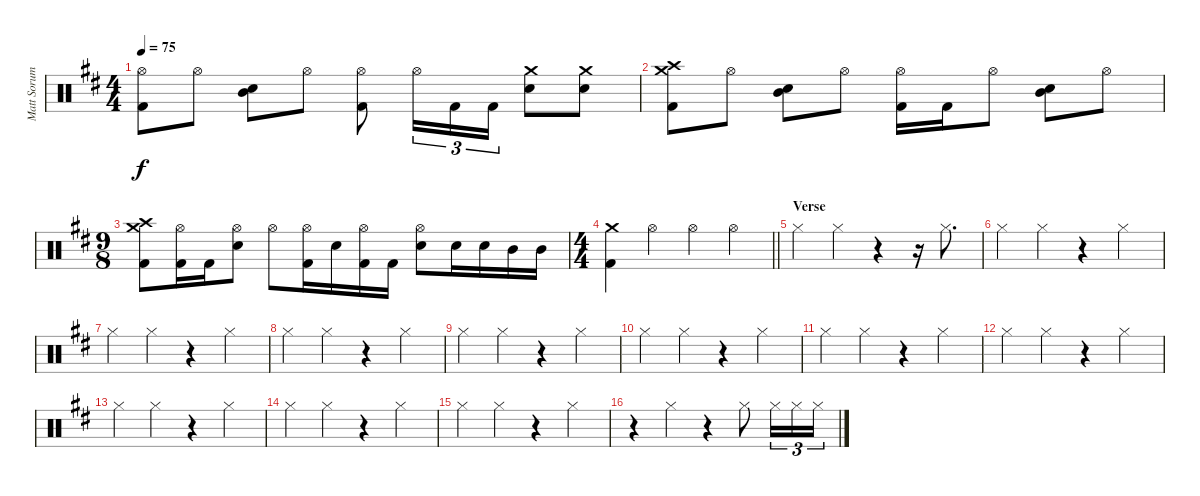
\track ("Matt Sorum- Drums" "Matt Sorum") {instrument percussion}
\staff {score}
\articulation defaults
\ts (4 4)
\tempo 75
\clef neutral
\ks d
("Hi-Hat (open)" "Kick (hit) 2").8{dy f} "Hi-Hat (open)".8 ("Mid Tom (hit)" "Snare (hit) 2").8 "Hi-Hat (open)".8 ("Hi-Hat (open)" "Kick (hit) 2").8 "Hi-Hat (open)".16{tu (3 2)} "Kick (hit) 2".16{tu (3 2)} "Kick (hit) 2".16{tu (3 2)} ("Crash medium (hit)" "Snare (hit) 2").8 ("Crash medium (hit)" "Snare (hit) 2").8 |
("Crash medium (hit)" "Crash high (hit)" "Kick (hit) 2").8 "Hi-Hat (open)".8 ("Mid Tom (hit)" "Snare (hit) 2").8 "Hi-Hat (open)".8 ("Hi-Hat (open)" "Kick (hit) 2").16 "Kick (hit) 2".16 "Hi-Hat (open)".8 ("Mid Tom (hit)" "Snare (hit) 2").8 "Hi-Hat (open)".8 |
\ts (9 8)
("Crash medium (hit)" "Crash high (hit)" "Kick (hit) 2").8 ("Hi-Hat (open)" "Kick (hit) 2").16 "Kick (hit) 2".16 ("Hi-Hat (open)" "Snare (hit) 2").8 "Hi-Hat (open)".8 ("Hi-Hat (open)" "Kick (hit) 2").16 "Snare (hit) 2".16 ("Hi-Hat (open)" "Kick (hit) 2").16 "Kick (hit) 2".16 ("Hi-Hat (open)" "Snare (hit) 2").8 "Snare (hit) 2".16 "Snare (hit) 2".16 "Mid Tom (hit)".16 "Mid Tom (hit)".16 |
\ts (4 4)
\barLineRight lightlight
("Crash medium (hit)" "Kick (hit) 2").4 "Hi-Hat (open)".4 "Hi-Hat (open)".4 "Hi-Hat (open)".4 |
\section ("" "Verse")
"Hi-Hat (closed)".4 "Hi-Hat (closed)".4 r.4 r.16 "Hi-Hat (closed)".8{d} |
"Hi-Hat (closed)".4 "Hi-Hat (closed)".4 r.4 "Hi-Hat (closed)".4 |
"Hi-Hat (closed)".4 "Hi-Hat (closed)".4 r.4 "Hi-Hat (closed)".4 |
"Hi-Hat (closed)".4 "Hi-Hat (closed)".4 r.4 "Hi-Hat (closed)".4 |
"Hi-Hat (closed)".4 "Hi-Hat (closed)".4 r.4 "Hi-Hat (closed)".4 |
"Hi-Hat (closed)".4 "Hi-Hat (closed)".4 r.4 "Hi-Hat (closed)".4 |
"Hi-Hat (closed)".4 "Hi-Hat (closed)".4 r.4 "Hi-Hat (closed)".4 |
"Hi-Hat (closed)".4 "Hi-Hat (closed)".4 r.4 "Hi-Hat (closed)".4 |
"Hi-Hat (closed)".4 "Hi-Hat (closed)".4 r.4 "Hi-Hat (closed)".4 |
"Hi-Hat (closed)".4 "Hi-Hat (closed)".4 r.4 "Hi-Hat (closed)".4 |
"Hi-Hat (closed)".4 "Hi-Hat (closed)".4 r.4 "Hi-Hat (closed)".4 |
r.4 "Hi-Hat (closed)".4 r.4 "Hi-Hat (closed)".8 "Hi-Hat (closed)".16{tu (3 2)} "Hi-Hat (closed)".16{tu (3 2)} "Hi-Hat (closed)".16{tu (3 2)}
